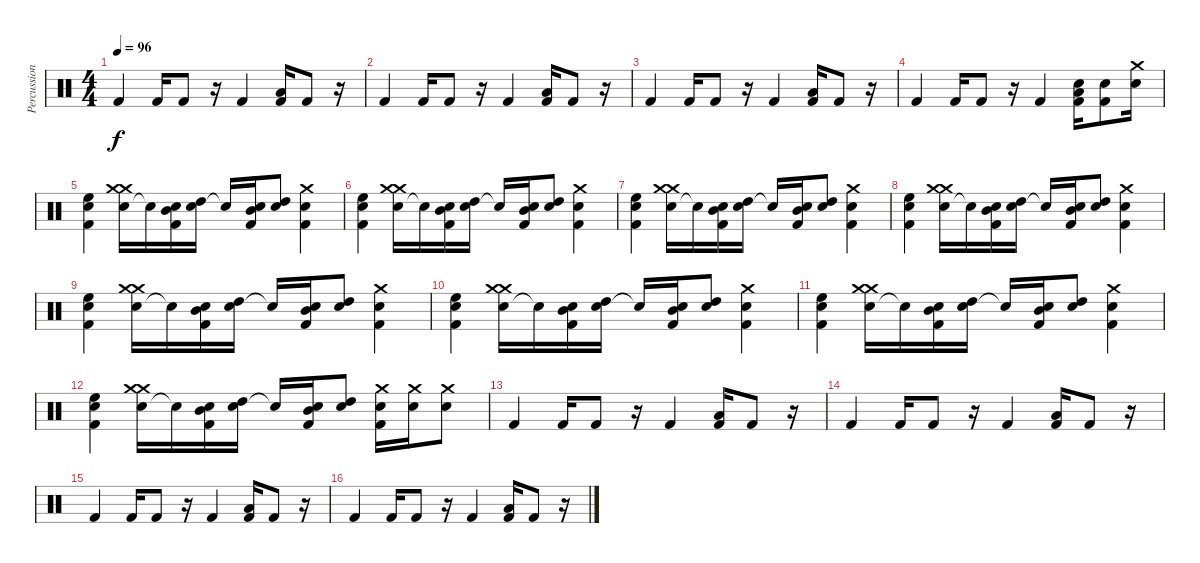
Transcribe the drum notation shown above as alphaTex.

\track ("Percussion" "Percussion") {instrument percussion}
\staff {score}
\articulation defaults
\ts (4 4)
\tempo 96
\clef neutral
\ks c "Kick (hit) 2".4{dy f} "Kick (hit) 2".16 "Kick (hit) 2".8
r.16 "Kick (hit) 2".4 ("Low Tom (hit)" "Kick (hit) 2").16 "Kick (hit) 2".8 r.16 |
"Kick (hit) 2".4 "Kick (hit) 2".16 "Kick (hit) 2".8 r.16 "Kick (hit) 2".4 ("Low Tom (hit)" "Kick (hit) 2").16 "Kick (hit) 2".8 r.16 |
"Kick (hit) 2".4 "Kick (hit) 2".16 "Kick (hit) 2".8 r.16 "Kick (hit) 2".4 ("Low Tom (hit)" "Kick (hit) 2").16 "Kick (hit) 2".8 r.16 |
"Kick (hit) 2".4 "Kick (hit) 2".16 "Kick (hit) 2".8 r.16 "Kick (hit) 2".4 ("Electric Snare (hit)" "Kick (hit) 2" "Low Tom (hit)").16 ("Electric Snare (hit)" "Kick (hit) 2").8 ("Electric Snare (hit)" "Crash medium (hit)").16 |
("Electric Snare (hit)" "High Floor Tom (hit)" "Kick (hit) 2").4 ("Electric Snare (hit)" "Crash medium (hit)" "Crash medium (hit)").16 "Electric Snare (hit)"{t}.16 ("Electric Snare (hit)" "Mid Tom (hit)" "Kick (hit) 2").16 ("Electric Snare (hit)" "High Tom (hit)").16 "Electric Snare (hit)"{t}.16 ("Electric Snare (hit)" "Mid Tom (hit)" "Kick (hit) 2").16 ("Electric Snare (hit)" "High Tom (hit)").8 ("Electric Snare (hit)" "Kick (hit) 2" "Crash medium (hit)").4 |
("Electric Snare (hit)" "High Floor Tom (hit)" "Kick (hit) 2").4 ("Electric Snare (hit)" "Crash medium (hit)" "Crash medium (hit)").16 "Electric Snare (hit)"{t}.16 ("Electric Snare (hit)" "Mid Tom (hit)" "Kick (hit) 2").16 ("Electric Snare (hit)" "High Tom (hit)").16 "Electric Snare (hit)"{t}.16 ("Electric Snare (hit)" "Mid Tom (hit)" "Kick (hit) 2").16 ("Electric Snare (hit)" "High Tom (hit)").8 ("Electric Snare (hit)" "Kick (hit) 2" "Crash medium (hit)").4 |
("Electric Snare (hit)" "High Floor Tom (hit)" "Kick (hit) 2").4 ("Electric Snare (hit)" "Crash medium (hit)" "Crash medium (hit)").16 "Electric Snare (hit)"{t}.16 ("Electric Snare (hit)" "Mid Tom (hit)" "Kick (hit) 2").16 ("Electric Snare (hit)" "High Tom (hit)").16 "Electric Snare (hit)"{t}.16 ("Electric Snare (hit)" "Mid Tom (hit)" "Kick (hit) 2").16 ("Electric Snare (hit)" "High Tom (hit)").8 ("Electric Snare (hit)" "Kick (hit) 2" "Crash medium (hit)").4 |
("Electric Snare (hit)" "High Floor Tom (hit)" "Kick (hit) 2").4 ("Electric Snare (hit)" "Crash medium (hit)" "Crash medium (hit)").16 "Electric Snare (hit)"{t}.16 ("Electric Snare (hit)" "Mid Tom (hit)" "Kick (hit) 2").16 ("Electric Snare (hit)" "High Tom (hit)").16 "Electric Snare (hit)"{t}.16 ("Electric Snare (hit)" "Mid Tom (hit)" "Kick (hit) 2").16 ("Electric Snare (hit)" "High Tom (hit)").8 ("Electric Snare (hit)" "Kick (hit) 2" "Crash medium (hit)").4 |
("Electric Snare (hit)" "High Floor Tom (hit)" "Kick (hit) 2").4 ("Electric Snare (hit)" "Crash medium (hit)" "Crash medium (hit)").16 "Electric Snare (hit)"{t}.16 ("Electric Snare (hit)" "Mid Tom (hit)" "Kick (hit) 2").16 ("Electric Snare (hit)" "High Tom (hit)").16 "Electric Snare (hit)"{t}.16 ("Electric Snare (hit)" "Mid Tom (hit)" "Kick (hit) 2").16 ("Electric Snare (hit)" "High Tom (hit)").8 ("Electric Snare (hit)" "Kick (hit) 2" "Crash medium (hit)").4 |
("Electric Snare (hit)" "High Floor Tom (hit)" "Kick (hit) 2").4 ("Electric Snare (hit)" "Crash medium (hit)" "Crash medium (hit)").16 "Electric Snare (hit)"{t}.16 ("Electric Snare (hit)" "Mid Tom (hit)" "Kick (hit) 2").16 ("Electric Snare (hit)" "High Tom (hit)").16 "Electric Snare (hit)"{t}.16 ("Electric Snare (hit)" "Mid Tom (hit)" "Kick (hit) 2").16 ("Electric Snare (hit)" "High Tom (hit)").8 ("Electric Snare (hit)" "Kick (hit) 2" "Crash medium (hit)").4 |
("Electric Snare (hit)" "High Floor Tom (hit)" "Kick (hit) 2").4 ("Electric Snare (hit)" "Crash medium (hit)" "Crash medium (hit)").16 "Electric Snare (hit)"{t}.16 ("Electric Snare (hit)" "Mid Tom (hit)" "Kick (hit) 2").16 ("Electric Snare (hit)" "High Tom (hit)").16 "Electric Snare (hit)"{t}.16 ("Electric Snare (hit)" "Mid Tom (hit)" "Kick (hit) 2").16 ("Electric Snare (hit)" "High Tom (hit)").8 ("Electric Snare (hit)" "Kick (hit) 2" "Crash medium (hit)").4 |
("Electric Snare (hit)" "High Floor Tom (hit)" "Kick (hit) 2").4 ("Electric Snare (hit)" "Crash medium (hit)" "Crash medium (hit)").16 "Electric Snare (hit)"{t}.16 ("Electric Snare (hit)" "Mid Tom (hit)" "Kick (hit) 2").16 ("Electric Snare (hit)" "High Tom (hit)").16 "Electric Snare (hit)"{t}.16 ("Electric Snare (hit)" "Mid Tom (hit)" "Kick (hit) 2").16 ("Electric Snare (hit)" "High Tom (hit)").8 ("Electric Snare (hit)" "Kick (hit) 2" "Crash medium (hit)").16 ("Electric Snare (hit)" "Crash medium (hit)").16 ("Electric Snare (hit)" "Crash medium (hit)").8 |
"Kick (hit) 2".4 "Kick (hit) 2".16 "Kick (hit) 2".8 r.16 "Kick (hit) 2".4 ("Low Tom (hit)" "Kick (hit) 2").16 "Kick (hit) 2".8 r.16 |
"Kick (hit) 2".4 "Kick (hit) 2".16 "Kick (hit) 2".8 r.16 "Kick (hit) 2".4 ("Low Tom (hit)" "Kick (hit) 2").16 "Kick (hit) 2".8 r.16 |
"Kick (hit) 2".4 "Kick (hit) 2".16 "Kick (hit) 2".8 r.16 "Kick (hit) 2".4 ("Low Tom (hit)" "Kick (hit) 2").16 "Kick (hit) 2".8 r.16 |
"Kick (hit) 2".4 "Kick (hit) 2".16 "Kick (hit) 2".8 r.16 "Kick (hit) 2".4 ("Low Tom (hit)" "Kick (hit) 2").16 "Kick (hit) 2".8 r.16
